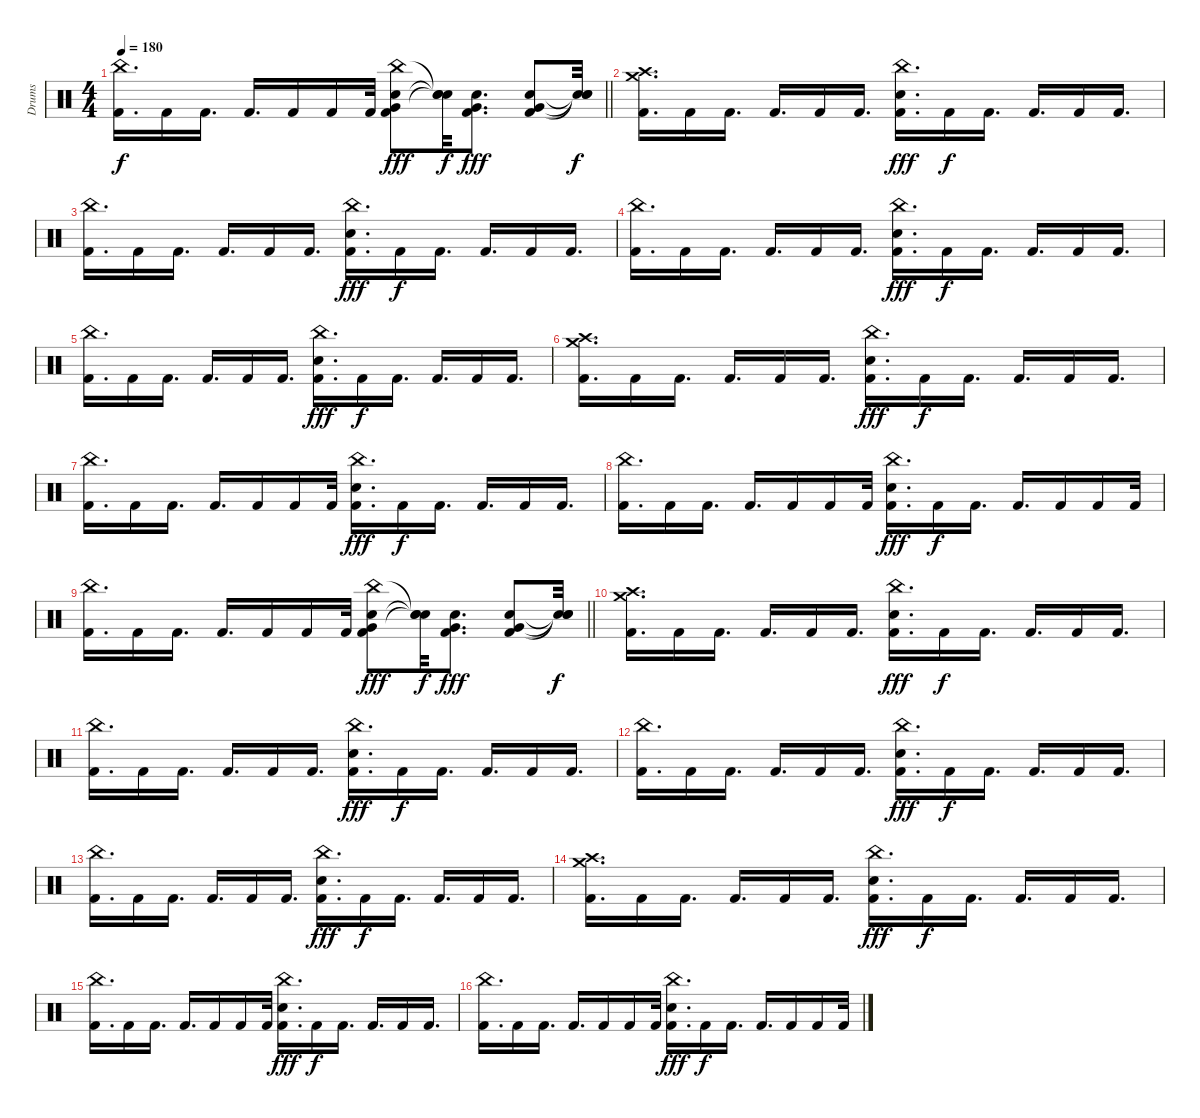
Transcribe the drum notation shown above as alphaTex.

\track ("Drums" "Drums") {instrument percussion}
\staff {score}
\articulation defaults
\ts (4 4)
\tempo 180
\clef neutral
\barLineRight lightlight
\ks c
("China (hit)" "Kick (hit) 2").16{d dy f} "Kick (hit) 2".16 "Kick (hit) 2".16{d} "Kick (hit) 2".16{d} "Kick (hit) 2".16 "Kick (hit) 2".16 "Kick (hit) 2".32 ("China (hit)" "Snare (hit) 2" "Very Low Tom (hit)" "Kick (hit) 2").8{dy fff} ("Snare (hit)"{t} "Snare (hit)"{t} "Snare (hit)"{t}).32{dy f} ("Snare (hit) 2" "Very Low Tom (hit)" "Kick (hit) 2").8{d dy fff} ("Snare (hit) 2" "Very Low Tom (hit)" "Kick (hit) 2").8 ("Snare (hit)"{t} "Snare (hit)"{t} "Snare (hit)"{t}).32{dy f} |
("Crash high (hit)" "Crash medium (hit)" "Kick (hit) 2").16{d} "Kick (hit) 2".16 "Kick (hit) 2".16{d} "Kick (hit) 2".16{d} "Kick (hit) 2".16 "Kick (hit) 2".16{d} ("China (hit)" "Snare (hit) 2" "Kick (hit) 2").16{d dy fff} "Kick (hit) 2".16{dy f} "Kick (hit) 2".16{d} "Kick (hit) 2".16{d} "Kick (hit) 2".16 "Kick (hit) 2".16{d} |
("China (hit)" "Kick (hit) 2").16{d} "Kick (hit) 2".16 "Kick (hit) 2".16{d} "Kick (hit) 2".16{d} "Kick (hit) 2".16 "Kick (hit) 2".16{d} ("China (hit)" "Kick (hit) 2" "Snare (hit) 2").16{d dy fff} "Kick (hit) 2".16{dy f} "Kick (hit) 2".16{d} "Kick (hit) 2".16{d} "Kick (hit) 2".16 "Kick (hit) 2".16{d} |
("China (hit)" "Kick (hit) 2").16{d} "Kick (hit) 2".16 "Kick (hit) 2".16{d} "Kick (hit) 2".16{d} "Kick (hit) 2".16 "Kick (hit) 2".16{d} ("China (hit)" "Snare (hit) 2" "Kick (hit) 2").16{d dy fff} "Kick (hit) 2".16{dy f} "Kick (hit) 2".16{d} "Kick (hit) 2".16{d} "Kick (hit) 2".16 "Kick (hit) 2".16{d} |
("China (hit)" "Kick (hit) 2").16{d} "Kick (hit) 2".16 "Kick (hit) 2".16{d} "Kick (hit) 2".16{d} "Kick (hit) 2".16 "Kick (hit) 2".16{d} ("China (hit)" "Kick (hit) 2" "Snare (hit) 2").16{d dy fff} "Kick (hit) 2".16{dy f} "Kick (hit) 2".16{d} "Kick (hit) 2".16{d} "Kick (hit) 2".16 "Kick (hit) 2".16{d} |
("Crash high (hit)" "Crash medium (hit)" "Kick (hit) 2").16{d} "Kick (hit) 2".16 "Kick (hit) 2".16{d} "Kick (hit) 2".16{d} "Kick (hit) 2".16 "Kick (hit) 2".16{d} ("China (hit)" "Snare (hit) 2" "Kick (hit) 2").16{d dy fff} "Kick (hit) 2".16{dy f} "Kick (hit) 2".16{d} "Kick (hit) 2".16{d} "Kick (hit) 2".16 "Kick (hit) 2".16{d} |
("China (hit)" "Kick (hit) 2").16{d} "Kick (hit) 2".16 "Kick (hit) 2".16{d} "Kick (hit) 2".16{d} "Kick (hit) 2".16 "Kick (hit) 2".16 "Kick (hit) 2".32 ("China (hit)" "Kick (hit) 2" "Snare (hit) 2").16{d dy fff} "Kick (hit) 2".16{dy f} "Kick (hit) 2".16{d} "Kick (hit) 2".16{d} "Kick (hit) 2".16 "Kick (hit) 2".16{d} |
("Kick (hit) 2" "China (hit)").16{d} "Kick (hit) 2".16 "Kick (hit) 2".16{d} "Kick (hit) 2".16{d} "Kick (hit) 2".16 "Kick (hit) 2".16 "Kick (hit) 2".32 ("China (hit)" "Snare (hit) 2" "Kick (hit) 2").16{d dy fff} "Kick (hit) 2".16{dy f} "Kick (hit) 2".16{d} "Kick (hit) 2".16{d} "Kick (hit) 2".16 "Kick (hit) 2".16 "Kick (hit) 2".32 |
\barLineRight lightlight
("China (hit)" "Kick (hit) 2").16{d} "Kick (hit) 2".16 "Kick (hit) 2".16{d} "Kick (hit) 2".16{d} "Kick (hit) 2".16 "Kick (hit) 2".16 "Kick (hit) 2".32 ("China (hit)" "Snare (hit) 2" "Very Low Tom (hit)" "Kick (hit) 2").8{dy fff} ("Snare (hit)"{t} "Snare (hit)"{t} "Snare (hit)"{t}).32{dy f} ("Snare (hit) 2" "Very Low Tom (hit)" "Kick (hit) 2").8{d dy fff} ("Snare (hit) 2" "Very Low Tom (hit)" "Kick (hit) 2").8 ("Snare (hit)"{t} "Snare (hit)"{t} "Snare (hit)"{t}).32{dy f} |
("Crash high (hit)" "Crash medium (hit)" "Kick (hit) 2").16{d} "Kick (hit) 2".16 "Kick (hit) 2".16{d} "Kick (hit) 2".16{d} "Kick (hit) 2".16 "Kick (hit) 2".16{d} ("China (hit)" "Snare (hit) 2" "Kick (hit) 2").16{d dy fff} "Kick (hit) 2".16{dy f} "Kick (hit) 2".16{d} "Kick (hit) 2".16{d} "Kick (hit) 2".16 "Kick (hit) 2".16{d} |
("China (hit)" "Kick (hit) 2").16{d} "Kick (hit) 2".16 "Kick (hit) 2".16{d} "Kick (hit) 2".16{d} "Kick (hit) 2".16 "Kick (hit) 2".16{d} ("China (hit)" "Kick (hit) 2" "Snare (hit) 2").16{d dy fff} "Kick (hit) 2".16{dy f} "Kick (hit) 2".16{d} "Kick (hit) 2".16{d} "Kick (hit) 2".16 "Kick (hit) 2".16{d} |
("China (hit)" "Kick (hit) 2").16{d} "Kick (hit) 2".16 "Kick (hit) 2".16{d} "Kick (hit) 2".16{d} "Kick (hit) 2".16 "Kick (hit) 2".16{d} ("China (hit)" "Snare (hit) 2" "Kick (hit) 2").16{d dy fff} "Kick (hit) 2".16{dy f} "Kick (hit) 2".16{d} "Kick (hit) 2".16{d} "Kick (hit) 2".16 "Kick (hit) 2".16{d} |
("China (hit)" "Kick (hit) 2").16{d} "Kick (hit) 2".16 "Kick (hit) 2".16{d} "Kick (hit) 2".16{d} "Kick (hit) 2".16 "Kick (hit) 2".16{d} ("China (hit)" "Kick (hit) 2" "Snare (hit) 2").16{d dy fff} "Kick (hit) 2".16{dy f} "Kick (hit) 2".16{d} "Kick (hit) 2".16{d} "Kick (hit) 2".16 "Kick (hit) 2".16{d} |
("Crash high (hit)" "Crash medium (hit)" "Kick (hit) 2").16{d} "Kick (hit) 2".16 "Kick (hit) 2".16{d} "Kick (hit) 2".16{d} "Kick (hit) 2".16 "Kick (hit) 2".16{d} ("China (hit)" "Snare (hit) 2" "Kick (hit) 2").16{d dy fff} "Kick (hit) 2".16{dy f} "Kick (hit) 2".16{d} "Kick (hit) 2".16{d} "Kick (hit) 2".16 "Kick (hit) 2".16{d} |
("China (hit)" "Kick (hit) 2").16{d} "Kick (hit) 2".16 "Kick (hit) 2".16{d} "Kick (hit) 2".16{d} "Kick (hit) 2".16 "Kick (hit) 2".16 "Kick (hit) 2".32 ("China (hit)" "Kick (hit) 2" "Snare (hit) 2").16{d dy fff} "Kick (hit) 2".16{dy f} "Kick (hit) 2".16{d} "Kick (hit) 2".16{d} "Kick (hit) 2".16 "Kick (hit) 2".16{d} |
("Kick (hit) 2" "China (hit)").16{d} "Kick (hit) 2".16 "Kick (hit) 2".16{d} "Kick (hit) 2".16{d} "Kick (hit) 2".16 "Kick (hit) 2".16 "Kick (hit) 2".32 ("China (hit)" "Snare (hit) 2" "Kick (hit) 2").16{d dy fff} "Kick (hit) 2".16{dy f} "Kick (hit) 2".16{d} "Kick (hit) 2".16{d} "Kick (hit) 2".16 "Kick (hit) 2".16 "Kick (hit) 2".32
